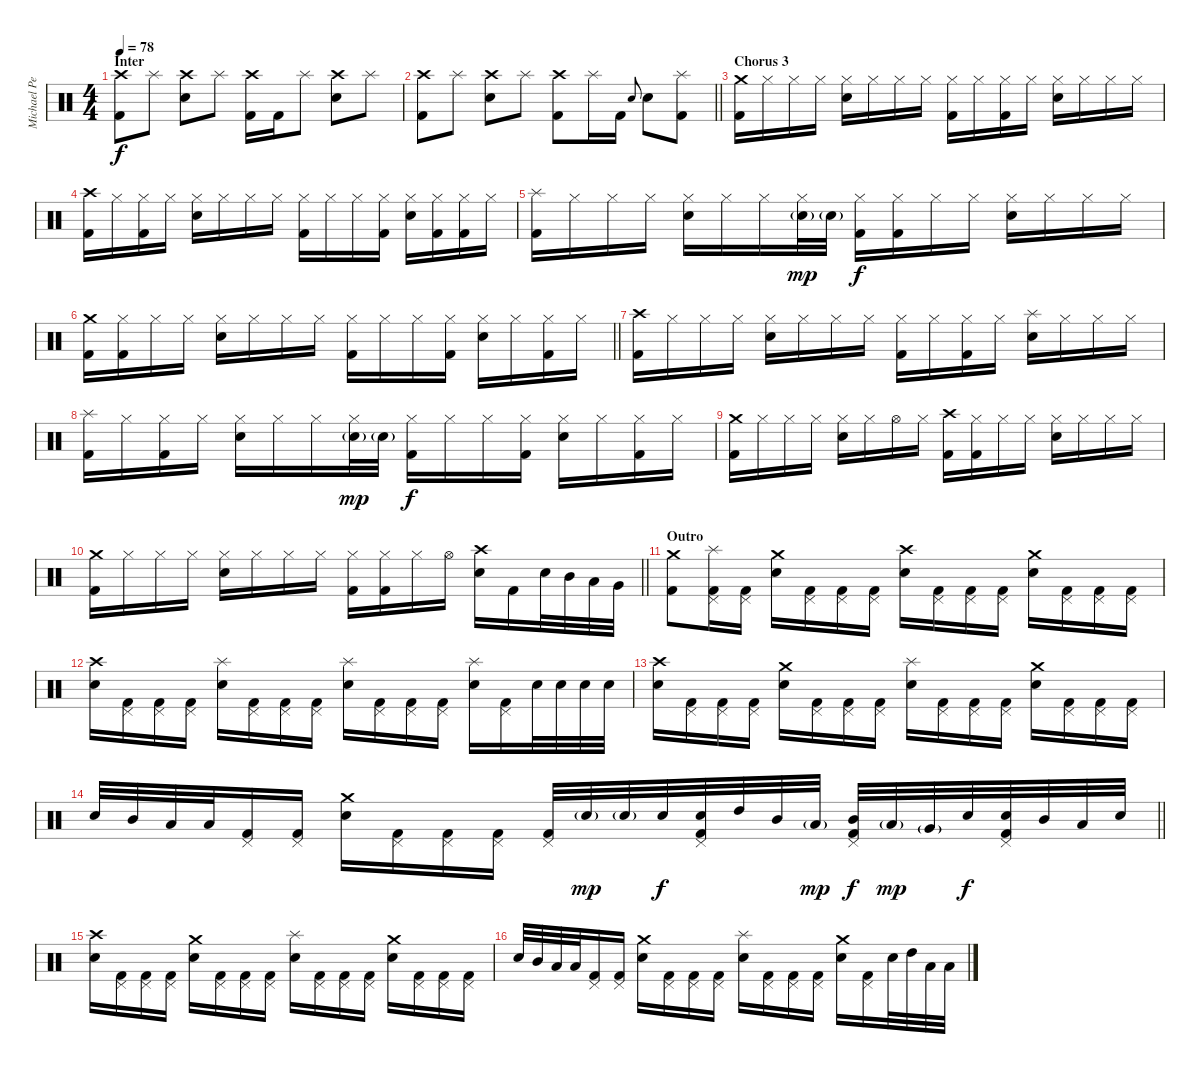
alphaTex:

\track ("Michael Pedicone [Drums]" "Michael Pe") {instrument percussion}
\staff {score}
\articulation defaults
\ts (4 4)
\section ("" "Inter")
\tempo 78
\clef neutral
\ks c
("Crash high (hit)" "Kick (hit) 2").8{dy f} "Splash (hit)".8 ("Crash high (hit)" "Electric Snare (hit)").8 "Splash (hit)".8 ("Crash high (hit)" "Kick (hit) 2").16 "Kick (hit) 2".16 "Splash (hit)".8 ("Crash high (hit)" "Electric Snare (hit)").8 "Splash (hit)".8 |
\barLineRight lightlight
("Crash high (hit)" "Kick (hit) 2").8 "Splash (hit)".8 ("Crash high (hit)" "Electric Snare (hit)").8 "Splash (hit)".8 ("Crash high (hit)" "Kick (hit) 2").8 "Splash (hit)".16 "Kick (hit) 2".16 "Electric Snare (hit)".8{gr onbeat} "Electric Snare (hit)".8 ("Splash (hit)" "Kick (hit) 2").8 |
\section ("" "Chorus 3")
("Crash medium (hit)" "Kick (hit) 2").16 "Hi-Hat (closed)".16 "Hi-Hat (closed)".16 "Hi-Hat (closed)".16 ("Hi-Hat (closed)" "Electric Snare (hit)").16 "Hi-Hat (closed)".16 "Hi-Hat (closed)".16 "Hi-Hat (closed)".16 ("Hi-Hat (closed)" "Kick (hit) 2").16 "Hi-Hat (closed)".16 ("Hi-Hat (closed)" "Kick (hit) 2").16 "Hi-Hat (closed)".16 ("Hi-Hat (closed)" "Electric Snare (hit)").16 "Hi-Hat (closed)".16 "Hi-Hat (closed)".16 "Hi-Hat (closed)".16 |
("Crash high (hit)" "Kick (hit) 2").16 "Hi-Hat (closed)".16 ("Hi-Hat (closed)" "Kick (hit) 2").16 "Hi-Hat (closed)".16 ("Hi-Hat (closed)" "Electric Snare (hit)").16 "Hi-Hat (closed)".16 "Hi-Hat (closed)".16 "Hi-Hat (closed)".16 ("Hi-Hat (closed)" "Kick (hit) 2").16 "Hi-Hat (closed)".16 "Hi-Hat (closed)".16 ("Hi-Hat (closed)" "Kick (hit) 2").16 ("Hi-Hat (closed)" "Electric Snare (hit)").16 ("Hi-Hat (closed)" "Kick (hit) 2").16 ("Hi-Hat (closed)" "Kick (hit) 2").16 "Hi-Hat (closed)".16 |
("Splash (hit)" "Kick (hit) 2").16 "Hi-Hat (closed)".16 "Hi-Hat (closed)".16 "Hi-Hat (closed)".16 ("Hi-Hat (closed)" "Electric Snare (hit)").16 "Hi-Hat (closed)".16 "Hi-Hat (closed)".16 ("Hi-Hat (closed)" "Electric Snare (hit)"{g}).32{dy mp} "Electric Snare (hit)"{g}.32 ("Hi-Hat (closed)" "Kick (hit) 2").16{dy f} ("Hi-Hat (closed)" "Kick (hit) 2").16 "Hi-Hat (closed)".16 "Hi-Hat (closed)".16 ("Hi-Hat (closed)" "Electric Snare (hit)").16 "Hi-Hat (closed)".16 "Hi-Hat (closed)".16 "Hi-Hat (closed)".16 |
\barLineRight lightlight
("Crash medium (hit)" "Kick (hit) 2").16 ("Hi-Hat (closed)" "Kick (hit) 2").16 "Hi-Hat (closed)".16 "Hi-Hat (closed)".16 ("Hi-Hat (closed)" "Electric Snare (hit)").16 "Hi-Hat (closed)".16 "Hi-Hat (closed)".16 "Hi-Hat (closed)".16 ("Hi-Hat (closed)" "Kick (hit) 2").16 "Hi-Hat (closed)".16 "Hi-Hat (closed)".16 ("Hi-Hat (closed)" "Kick (hit) 2").16 ("Hi-Hat (closed)" "Electric Snare (hit)").16 "Hi-Hat (closed)".16 ("Hi-Hat (closed)" "Kick (hit) 2").16 "Hi-Hat (closed)".16 |
("Crash high (hit)" "Kick (hit) 2").16 "Hi-Hat (closed)".16 "Hi-Hat (closed)".16 "Hi-Hat (closed)".16 ("Hi-Hat (closed)" "Electric Snare (hit)").16 "Hi-Hat (closed)".16 "Hi-Hat (closed)".16 "Hi-Hat (closed)".16 ("Hi-Hat (closed)" "Kick (hit) 2").16 "Hi-Hat (closed)".16 ("Hi-Hat (closed)" "Kick (hit) 2").16 "Hi-Hat (closed)".16 ("Splash (hit)" "Electric Snare (hit)").16 "Hi-Hat (closed)".16 "Hi-Hat (closed)".16 "Hi-Hat (closed)".16 |
("Splash (hit)" "Kick (hit) 2").16 "Hi-Hat (closed)".16 ("Hi-Hat (closed)" "Kick (hit) 2").16 "Hi-Hat (closed)".16 ("Hi-Hat (closed)" "Electric Snare (hit)").16 "Hi-Hat (closed)".16 "Hi-Hat (closed)".16 ("Hi-Hat (closed)" "Electric Snare (hit)"{g}).32{dy mp} "Electric Snare (hit)"{g}.32 ("Hi-Hat (closed)" "Kick (hit) 2").16{dy f} "Hi-Hat (closed)".16 "Hi-Hat (closed)".16 ("Hi-Hat (closed)" "Kick (hit) 2").16 ("Hi-Hat (closed)" "Electric Snare (hit)").16 "Hi-Hat (closed)".16 ("Hi-Hat (closed)" "Kick (hit) 2").16 "Hi-Hat (closed)".16 |
("Crash medium (hit)" "Kick (hit) 2").16 "Hi-Hat (closed)".16 "Hi-Hat (closed)".16 "Hi-Hat (closed)".16 ("Hi-Hat (closed)" "Electric Snare (hit)").16 "Hi-Hat (closed)".16 "Hi-Hat (open)".16 "Hi-Hat (closed)".16 ("Crash high (hit)" "Kick (hit) 2").16 ("Hi-Hat (closed)" "Kick (hit) 2").16 "Hi-Hat (closed)".16 "Hi-Hat (closed)".16 ("Hi-Hat (closed)" "Electric Snare (hit)").16 "Hi-Hat (closed)".16 "Hi-Hat (closed)".16 "Hi-Hat (closed)".16 |
\barLineRight lightlight
("Crash medium (hit)" "Kick (hit) 2").16 "Hi-Hat (closed)".16 "Hi-Hat (closed)".16 "Hi-Hat (closed)".16 ("Hi-Hat (closed)" "Electric Snare (hit)").16 "Hi-Hat (closed)".16 "Hi-Hat (closed)".16 "Hi-Hat (closed)".16 ("Hi-Hat (closed)" "Kick (hit) 2").16 ("Hi-Hat (closed)" "Kick (hit) 2").16 "Hi-Hat (closed)".16 "Hi-Hat (open)".16 ("Crash high (hit)" "Electric Snare (hit)").16 "Kick (hit) 2".16 "Electric Snare (hit)".32 "Mid Tom (hit)".32 "Low Tom (hit)".32 "Very Low Tom (hit)".32 |
\section ("" "Outro")
("Crash medium (hit)" "Kick (hit) 2").8 ("Splash (hit)" "Pedal Hi-Hat (hit)" "Kick (hit) 2").16 ("Pedal Hi-Hat (hit)" "Kick (hit) 2").16 ("Crash medium (hit)" "Electric Snare (hit)").16 ("Pedal Hi-Hat (hit)" "Kick (hit) 2").16 ("Pedal Hi-Hat (hit)" "Kick (hit) 2").16 ("Pedal Hi-Hat (hit)" "Kick (hit) 2").16 ("Crash high (hit)" "Electric Snare (hit)").16 ("Pedal Hi-Hat (hit)" "Kick (hit) 2").16 ("Pedal Hi-Hat (hit)" "Kick (hit) 2").16 ("Pedal Hi-Hat (hit)" "Kick (hit) 2").16 ("Crash medium (hit)" "Electric Snare (hit)").16 ("Pedal Hi-Hat (hit)" "Kick (hit) 2").16 ("Pedal Hi-Hat (hit)" "Kick (hit) 2").16 ("Pedal Hi-Hat (hit)" "Kick (hit) 2").16 |
("Crash high (hit)" "Electric Snare (hit)").16 ("Pedal Hi-Hat (hit)" "Kick (hit) 2").16 ("Pedal Hi-Hat (hit)" "Kick (hit) 2").16 ("Pedal Hi-Hat (hit)" "Kick (hit) 2").16 ("Splash (hit)" "Electric Snare (hit)").16 ("Pedal Hi-Hat (hit)" "Kick (hit) 2").16 ("Pedal Hi-Hat (hit)" "Kick (hit) 2").16 ("Pedal Hi-Hat (hit)" "Kick (hit) 2").16 ("Splash (hit)" "Electric Snare (hit)").16 ("Pedal Hi-Hat (hit)" "Kick (hit) 2").16 ("Pedal Hi-Hat (hit)" "Kick (hit) 2").16 ("Pedal Hi-Hat (hit)" "Kick (hit) 2").16 ("Splash (hit)" "Electric Snare (hit)").16 ("Pedal Hi-Hat (hit)" "Kick (hit) 2").16 "Electric Snare (hit)".32 "Electric Snare (hit)".32 "Electric Snare (hit)".32 "Electric Snare (hit)".32 |
("Crash high (hit)" "Electric Snare (hit)").16 ("Pedal Hi-Hat (hit)" "Kick (hit) 2").16 ("Pedal Hi-Hat (hit)" "Kick (hit) 2").16 ("Pedal Hi-Hat (hit)" "Kick (hit) 2").16 ("Crash medium (hit)" "Electric Snare (hit)").16 ("Pedal Hi-Hat (hit)" "Kick (hit) 2").16 ("Pedal Hi-Hat (hit)" "Kick (hit) 2").16 ("Pedal Hi-Hat (hit)" "Kick (hit) 2").16 ("Splash (hit)" "Electric Snare (hit)").16 ("Pedal Hi-Hat (hit)" "Kick (hit) 2").16 ("Pedal Hi-Hat (hit)" "Kick (hit) 2").16 ("Pedal Hi-Hat (hit)" "Kick (hit) 2").16 ("Crash medium (hit)" "Electric Snare (hit)").16 ("Pedal Hi-Hat (hit)" "Kick (hit) 2").16 ("Pedal Hi-Hat (hit)" "Kick (hit) 2").16 ("Pedal Hi-Hat (hit)" "Kick (hit) 2").16 |
\barLineRight lightlight "Electric Snare (hit)".32 "Mid Tom (hit)".32 "Low Tom (hit)".32 "Low Floor Tom (hit)".32
("Pedal Hi-Hat (hit)" "Kick (hit) 2").16 ("Pedal Hi-Hat (hit)" "Kick (hit) 2").16 ("Crash medium (hit)" "Electric Snare (hit)").16 ("Pedal Hi-Hat (hit)" "Kick (hit) 2").16 ("Pedal Hi-Hat (hit)" "Kick (hit) 2").16 ("Pedal Hi-Hat (hit)" "Kick (hit) 2").16 ("Pedal Hi-Hat (hit)" "Kick (hit) 2").32 "Electric Snare (hit)"{g}.32{dy mp} "Electric Snare (hit)"{g}.32 "Electric Snare (hit)".32{dy f} ("Pedal Hi-Hat (hit)" "Electric Snare (hit)" "Kick (hit) 2").32 "High Tom (hit)".32 "Mid Tom (hit)".32 "Low Tom (hit)"{g}.32{dy mp} ("Pedal Hi-Hat (hit)" "Mid Tom (hit)" "Kick (hit) 2").32{dy f} "Low Tom (hit)"{g}.32{dy mp} "Very Low Tom (hit)"{g}.32 "Electric Snare (hit)".32{dy f} ("Pedal Hi-Hat (hit)" "Electric Snare (hit)" "Kick (hit) 2").32 "Mid Tom (hit)".32 "Low Tom (hit)".32 "Electric Snare (hit)".32 |
("Crash high (hit)" "Electric Snare (hit)").16 ("Pedal Hi-Hat (hit)" "Kick (hit) 2").16 ("Pedal Hi-Hat (hit)" "Kick (hit) 2").16 ("Pedal Hi-Hat (hit)" "Kick (hit) 2").16 ("Crash medium (hit)" "Electric Snare (hit)").16 ("Pedal Hi-Hat (hit)" "Kick (hit) 2").16 ("Pedal Hi-Hat (hit)" "Kick (hit) 2").16 ("Pedal Hi-Hat (hit)" "Kick (hit) 2").16 ("Splash (hit)" "Electric Snare (hit)").16 ("Pedal Hi-Hat (hit)" "Kick (hit) 2").16 ("Pedal Hi-Hat (hit)" "Kick (hit) 2").16 ("Pedal Hi-Hat (hit)" "Kick (hit) 2").16 ("Crash medium (hit)" "Electric Snare (hit)").16 ("Pedal Hi-Hat (hit)" "Kick (hit) 2").16 ("Pedal Hi-Hat (hit)" "Kick (hit) 2").16 ("Pedal Hi-Hat (hit)" "Kick (hit) 2").16 |
"Electric Snare (hit)".32 "Mid Tom (hit)".32 "Low Tom (hit)".32 "Low Floor Tom (hit)".32 ("Pedal Hi-Hat (hit)" "Kick (hit) 2").16 ("Pedal Hi-Hat (hit)" "Kick (hit) 2").16 ("Crash medium (hit)" "Electric Snare (hit)").16 ("Pedal Hi-Hat (hit)" "Kick (hit) 2").16 ("Pedal Hi-Hat (hit)" "Kick (hit) 2").16 ("Pedal Hi-Hat (hit)" "Kick (hit) 2").16 ("Splash (hit)" "Electric Snare (hit)").16 ("Pedal Hi-Hat (hit)" "Kick (hit) 2").16 ("Pedal Hi-Hat (hit)" "Kick (hit) 2").16 ("Pedal Hi-Hat (hit)" "Kick (hit) 2").16 ("Crash medium (hit)" "Electric Snare (hit)").16 ("Pedal Hi-Hat (hit)" "Kick (hit) 2").16 "Electric Snare (hit)".32 "High Tom (hit)".32 "Low Tom (hit)".32 "Low Tom (hit)".32
